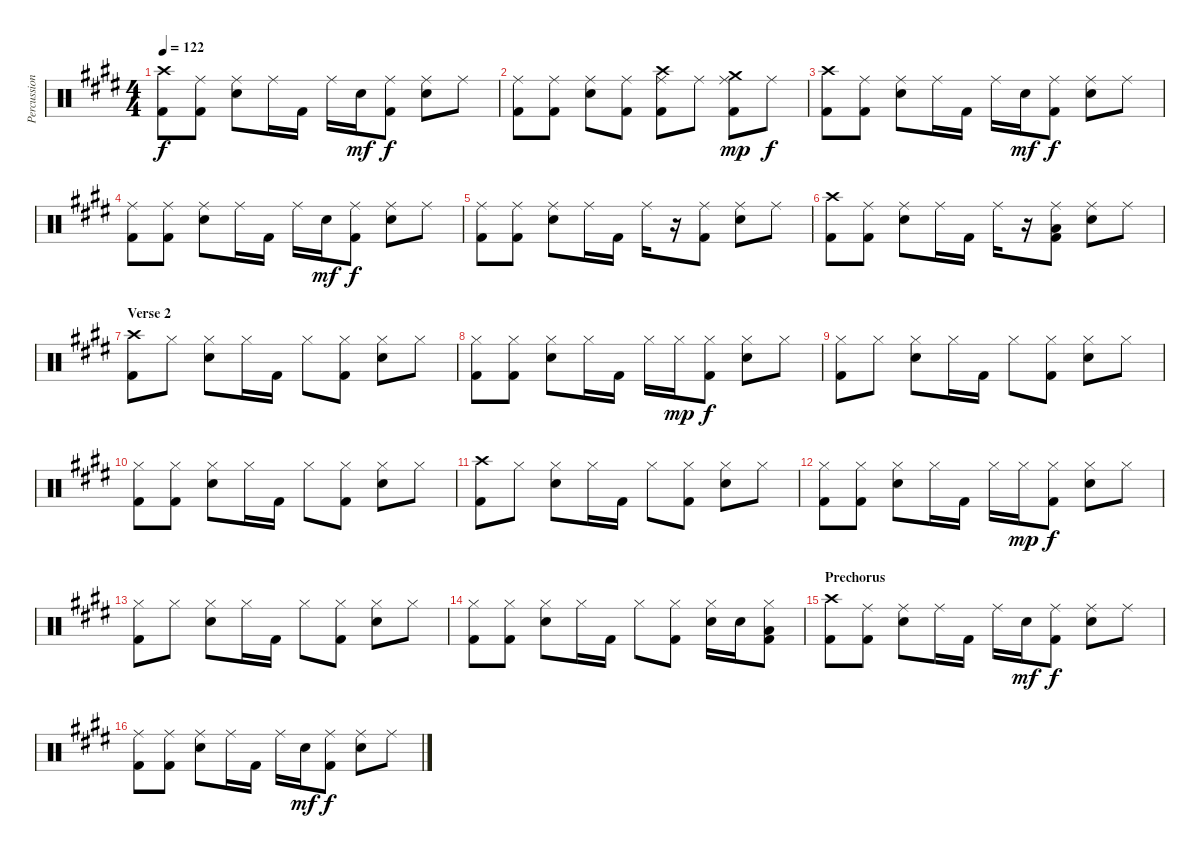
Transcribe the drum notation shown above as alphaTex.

\track ("Percussion" "Percussion") {instrument percussion}
\staff {score}
\articulation defaults
\ts (4 4)
\tempo 122
\clef neutral
\ks e
("Crash high (hit)" "Kick (hit) 2").8{dy f} ("Ride (middle)" "Kick (hit) 2").8 ("Ride (middle)" "Snare (hit) 2").8 "Ride (middle)".16 "Kick (hit) 2".16 "Ride (middle)".16 "Snare (hit) 2".16{dy mf} ("Ride (middle)" "Kick (hit) 2").8{dy f} ("Ride (middle)" "Snare (hit) 2").8 "Ride (middle)".8 |
("Ride (middle)" "Kick (hit) 2").8 ("Ride (middle)" "Kick (hit) 2").8 ("Ride (middle)" "Snare (hit) 2").8 ("Ride (middle)" "Kick (hit) 2").8 ("Crash high (hit)" "Ride (middle)" "Kick (hit) 2").8 "Ride (middle)".8 ("Crash medium (hit)" "Ride (middle)" "Kick (hit) 2").8{dy mp} "Ride (middle)".8{dy f} |
("Crash high (hit)" "Kick (hit) 2").8 ("Ride (middle)" "Kick (hit) 2").8 ("Ride (middle)" "Snare (hit) 2").8 "Ride (middle)".16 "Kick (hit) 2".16 "Ride (middle)".16 "Snare (hit) 2".16{dy mf} ("Ride (middle)" "Kick (hit) 2").8{dy f} ("Ride (middle)" "Snare (hit) 2").8 "Ride (middle)".8 |
("Ride (middle)" "Kick (hit) 2").8 ("Ride (middle)" "Kick (hit) 2").8 ("Ride (middle)" "Snare (hit) 2").8 "Ride (middle)".16 "Kick (hit) 2".16 "Ride (middle)".16 "Snare (hit) 2".16{dy mf} ("Ride (middle)" "Kick (hit) 2").8{dy f} ("Ride (middle)" "Snare (hit) 2").8 "Ride (middle)".8 |
("Ride (middle)" "Kick (hit) 2").8 ("Ride (middle)" "Kick (hit) 2").8 ("Ride (middle)" "Snare (hit) 2").8 "Ride (middle)".16 "Kick (hit) 2".16 "Ride (middle)".16 r.16 ("Ride (middle)" "Kick (hit) 2").8 ("Ride (middle)" "Snare (hit) 2").8 "Ride (middle)".8 |
("Crash high (hit)" "Kick (hit) 2").8 ("Ride (middle)" "Kick (hit) 2").8 ("Ride (middle)" "Snare (hit) 2").8 "Ride (middle)".16 "Kick (hit) 2".16 "Ride (middle)".16 r.16 ("Ride (middle)" "Low Tom (hit)" "Kick (hit) 2").8 ("Ride (middle)" "Snare (hit) 2").8 "Ride (middle)".8 |
\section ("" "Verse 2")
("Crash high (hit)" "Kick (hit) 2").8 "Hi-Hat (closed)".8 ("Hi-Hat (closed)" "Snare (hit) 2").8 "Hi-Hat (closed)".16 "Kick (hit) 2".16 "Hi-Hat (closed)".8 ("Hi-Hat (closed)" "Kick (hit) 2").8 ("Hi-Hat (closed)" "Snare (hit) 2").8 "Hi-Hat (closed)".8 |
("Hi-Hat (closed)" "Kick (hit) 2").8 ("Hi-Hat (closed)" "Kick (hit) 2").8 ("Hi-Hat (closed)" "Snare (hit) 2").8 "Hi-Hat (closed)".16 "Kick (hit) 2".16 "Hi-Hat (closed)".16 "Hi-Hat (closed)".16{dy mp} ("Hi-Hat (closed)" "Kick (hit) 2").8{dy f} ("Hi-Hat (closed)" "Snare (hit) 2").8 "Hi-Hat (closed)".8 |
("Hi-Hat (closed)" "Kick (hit) 2").8 "Hi-Hat (closed)".8 ("Hi-Hat (closed)" "Snare (hit) 2").8 "Hi-Hat (closed)".16 "Kick (hit) 2".16 "Hi-Hat (closed)".8 ("Hi-Hat (closed)" "Kick (hit) 2").8 ("Hi-Hat (closed)" "Snare (hit) 2").8 "Hi-Hat (closed)".8 |
("Hi-Hat (closed)" "Kick (hit) 2").8 ("Hi-Hat (closed)" "Kick (hit) 2").8 ("Hi-Hat (closed)" "Snare (hit) 2").8 "Hi-Hat (closed)".16 "Kick (hit) 2".16 "Hi-Hat (closed)".8 ("Hi-Hat (closed)" "Kick (hit) 2").8 ("Hi-Hat (closed)" "Snare (hit) 2").8 "Hi-Hat (closed)".8 |
("Crash high (hit)" "Kick (hit) 2").8 "Hi-Hat (closed)".8 ("Hi-Hat (closed)" "Snare (hit) 2").8 "Hi-Hat (closed)".16 "Kick (hit) 2".16 "Hi-Hat (closed)".8 ("Hi-Hat (closed)" "Kick (hit) 2").8 ("Hi-Hat (closed)" "Snare (hit) 2").8 "Hi-Hat (closed)".8 |
("Hi-Hat (closed)" "Kick (hit) 2").8 ("Hi-Hat (closed)" "Kick (hit) 2").8 ("Hi-Hat (closed)" "Snare (hit) 2").8 "Hi-Hat (closed)".16 "Kick (hit) 2".16 "Hi-Hat (closed)".16 "Hi-Hat (closed)".16{dy mp} ("Hi-Hat (closed)" "Kick (hit) 2").8{dy f} ("Hi-Hat (closed)" "Snare (hit) 2").8 "Hi-Hat (closed)".8 |
("Hi-Hat (closed)" "Kick (hit) 2").8 "Hi-Hat (closed)".8 ("Hi-Hat (closed)" "Snare (hit) 2").8 "Hi-Hat (closed)".16 "Kick (hit) 2".16 "Hi-Hat (closed)".8 ("Hi-Hat (closed)" "Kick (hit) 2").8 ("Hi-Hat (closed)" "Snare (hit) 2").8 "Hi-Hat (closed)".8 |
("Hi-Hat (closed)" "Kick (hit) 2").8 ("Hi-Hat (closed)" "Kick (hit) 2").8 ("Hi-Hat (closed)" "Snare (hit) 2").8 "Hi-Hat (closed)".16 "Kick (hit) 2".16 "Hi-Hat (closed)".8 ("Hi-Hat (closed)" "Kick (hit) 2").8 ("Hi-Hat (closed)" "Snare (hit) 2").16 "Snare (hit) 2".16 ("Hi-Hat (closed)" "Low Tom (hit)" "Kick (hit) 2").8 |
\section ("" "Prechorus")
("Crash high (hit)" "Kick (hit) 2").8 ("Ride (middle)" "Kick (hit) 2").8 ("Ride (middle)" "Snare (hit) 2").8 "Ride (middle)".16 "Kick (hit) 2".16 "Ride (middle)".16 "Snare (hit) 2".16{dy mf} ("Ride (middle)" "Kick (hit) 2").8{dy f} ("Ride (middle)" "Snare (hit) 2").8 "Ride (middle)".8 |
("Ride (middle)" "Kick (hit) 2").8 ("Ride (middle)" "Kick (hit) 2").8 ("Ride (middle)" "Snare (hit) 2").8 "Ride (middle)".16 "Kick (hit) 2".16 "Ride (middle)".16 "Snare (hit) 2".16{dy mf} ("Ride (middle)" "Kick (hit) 2").8{dy f} ("Ride (middle)" "Snare (hit) 2").8 "Ride (middle)".8
